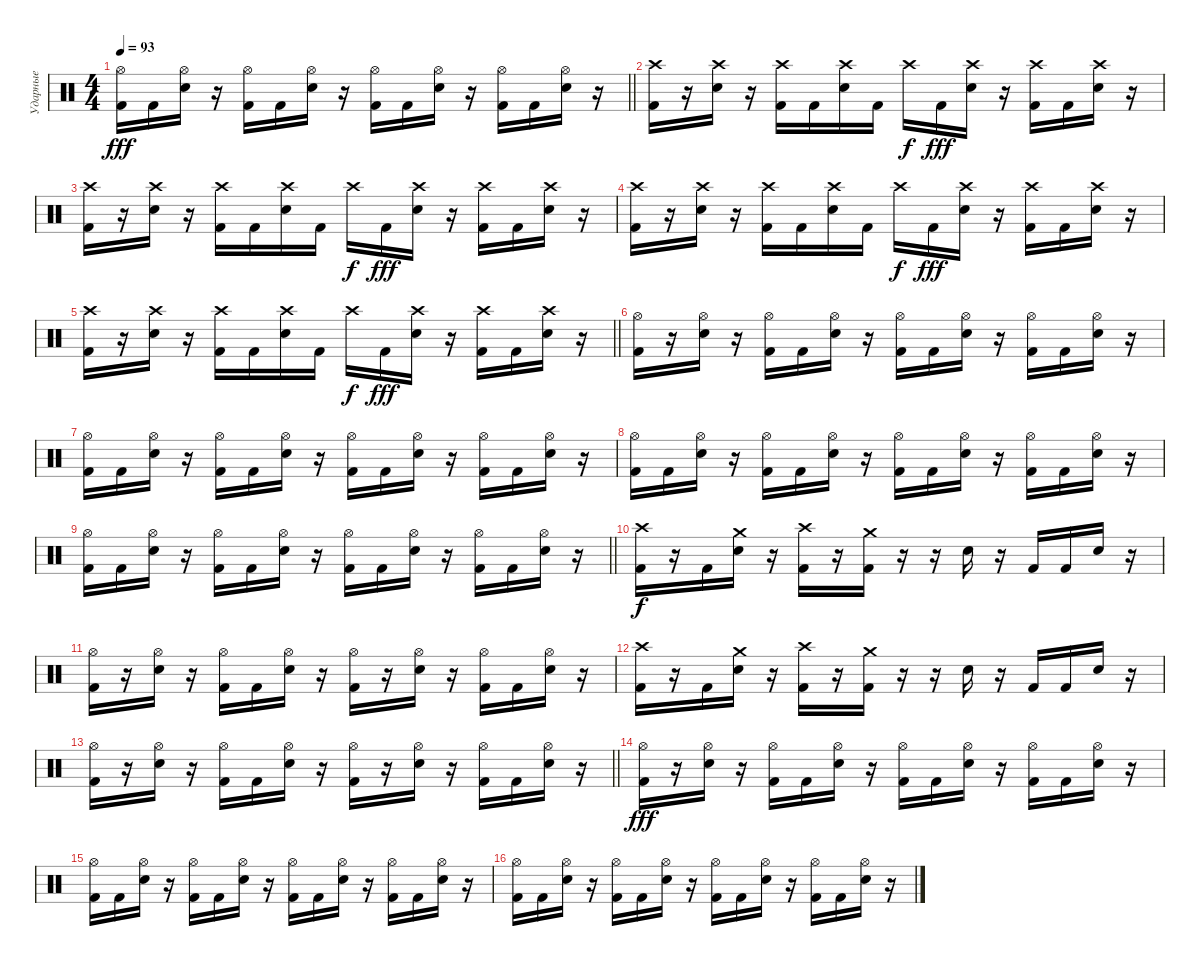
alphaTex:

\track ("Ударные" "Ударные") {instrument percussion}
\staff {score}
\articulation defaults
\ts (4 4)
\tempo 93
\clef neutral
\barLineRight lightlight
\ks c
("Hi-Hat (open)" "Kick (hit) 2").16{dy fff} "Kick (hit) 2".16 ("Hi-Hat (open)" "Electric Snare (hit)").16 r.16 ("Hi-Hat (open)" "Kick (hit) 2").16 "Kick (hit) 2".16 ("Hi-Hat (open)" "Electric Snare (hit)").16 r.16 ("Hi-Hat (open)" "Kick (hit) 2").16 "Kick (hit) 2".16 ("Hi-Hat (open)" "Electric Snare (hit)").16 r.16 ("Hi-Hat (open)" "Kick (hit) 2").16 "Kick (hit) 2".16 ("Hi-Hat (open)" "Electric Snare (hit)").16 r.16 |
\section ("" "")
("Crash high (hit)" "Kick (hit) 2").16 r.16 ("Crash high (hit)" "Electric Snare (hit)").16 r.16 ("Crash high (hit)" "Kick (hit) 2").16 "Kick (hit) 2".16 ("Crash high (hit)" "Electric Snare (hit)").16 "Kick (hit) 2".16 "Crash high (hit)".16{dy f} "Kick (hit) 2".16{dy fff} ("Crash high (hit)" "Electric Snare (hit)").16 r.16 ("Crash high (hit)" "Kick (hit) 2").16 "Kick (hit) 2".16 ("Crash high (hit)" "Electric Snare (hit)").16 r.16 |
("Crash high (hit)" "Kick (hit) 2").16 r.16 ("Crash high (hit)" "Electric Snare (hit)").16 r.16 ("Crash high (hit)" "Kick (hit) 2").16 "Kick (hit) 2".16 ("Crash high (hit)" "Electric Snare (hit)").16 "Kick (hit) 2".16 "Crash high (hit)".16{dy f} "Kick (hit) 2".16{dy fff} ("Crash high (hit)" "Electric Snare (hit)").16 r.16 ("Crash high (hit)" "Kick (hit) 2").16 "Kick (hit) 2".16 ("Crash high (hit)" "Electric Snare (hit)").16 r.16 |
("Crash high (hit)" "Kick (hit) 2").16 r.16 ("Crash high (hit)" "Electric Snare (hit)").16 r.16 ("Crash high (hit)" "Kick (hit) 2").16 "Kick (hit) 2".16 ("Crash high (hit)" "Electric Snare (hit)").16 "Kick (hit) 2".16 "Crash high (hit)".16{dy f} "Kick (hit) 2".16{dy fff} ("Crash high (hit)" "Electric Snare (hit)").16 r.16 ("Crash high (hit)" "Kick (hit) 2").16 "Kick (hit) 2".16 ("Crash high (hit)" "Electric Snare (hit)").16 r.16 |
\barLineRight lightlight
("Crash high (hit)" "Kick (hit) 2").16 r.16 ("Crash high (hit)" "Electric Snare (hit)").16 r.16 ("Crash high (hit)" "Kick (hit) 2").16 "Kick (hit) 2".16 ("Crash high (hit)" "Electric Snare (hit)").16 "Kick (hit) 2".16 "Crash high (hit)".16{dy f} "Kick (hit) 2".16{dy fff} ("Crash high (hit)" "Electric Snare (hit)").16 r.16 ("Crash high (hit)" "Kick (hit) 2").16 "Kick (hit) 2".16 ("Crash high (hit)" "Electric Snare (hit)").16 r.16 |
\section ("" "")
("Hi-Hat (open)" "Kick (hit) 2").16 r.16 ("Hi-Hat (open)" "Electric Snare (hit)").16 r.16 ("Hi-Hat (open)" "Kick (hit) 2").16 "Kick (hit) 2".16 ("Hi-Hat (open)" "Electric Snare (hit)").16 r.16 ("Hi-Hat (open)" "Kick (hit) 2").16 "Kick (hit) 2".16 ("Hi-Hat (open)" "Electric Snare (hit)").16 r.16 ("Hi-Hat (open)" "Kick (hit) 2").16 "Kick (hit) 2".16 ("Hi-Hat (open)" "Electric Snare (hit)").16 r.16 |
("Hi-Hat (open)" "Kick (hit) 2").16 "Kick (hit) 2".16 ("Hi-Hat (open)" "Electric Snare (hit)").16 r.16 ("Hi-Hat (open)" "Kick (hit) 2").16 "Kick (hit) 2".16 ("Hi-Hat (open)" "Electric Snare (hit)").16 r.16 ("Hi-Hat (open)" "Kick (hit) 2").16 "Kick (hit) 2".16 ("Hi-Hat (open)" "Electric Snare (hit)").16 r.16 ("Hi-Hat (open)" "Kick (hit) 2").16 "Kick (hit) 2".16 ("Hi-Hat (open)" "Electric Snare (hit)").16 r.16 |
("Hi-Hat (open)" "Kick (hit) 2").16 "Kick (hit) 2".16 ("Hi-Hat (open)" "Electric Snare (hit)").16 r.16 ("Hi-Hat (open)" "Kick (hit) 2").16 "Kick (hit) 2".16 ("Hi-Hat (open)" "Electric Snare (hit)").16 r.16 ("Hi-Hat (open)" "Kick (hit) 2").16 "Kick (hit) 2".16 ("Hi-Hat (open)" "Electric Snare (hit)").16 r.16 ("Hi-Hat (open)" "Kick (hit) 2").16 "Kick (hit) 2".16 ("Hi-Hat (open)" "Electric Snare (hit)").16 r.16 |
\barLineRight lightlight
("Hi-Hat (open)" "Kick (hit) 2").16 "Kick (hit) 2".16 ("Hi-Hat (open)" "Electric Snare (hit)").16 r.16 ("Hi-Hat (open)" "Kick (hit) 2").16 "Kick (hit) 2".16 ("Hi-Hat (open)" "Electric Snare (hit)").16 r.16 ("Hi-Hat (open)" "Kick (hit) 2").16 "Kick (hit) 2".16 ("Hi-Hat (open)" "Electric Snare (hit)").16 r.16 ("Hi-Hat (open)" "Kick (hit) 2").16 "Kick (hit) 2".16 ("Hi-Hat (open)" "Electric Snare (hit)").16 r.16 |
\section ("" "")
("Crash high (hit)" "Kick (hit) 2").16{dy f} r.16 "Kick (hit) 2".16 ("Crash medium (hit)" "Electric Snare (hit)").16 r.16 ("Crash high (hit)" "Kick (hit) 2").16 r.16 ("Crash medium (hit)" "Kick (hit) 2").16 r.16 r.16 "Electric Snare (hit)".16 r.16 "Kick (hit) 2".16 "Kick (hit) 2".16 "Electric Snare (hit)".16 r.16 |
("Hi-Hat (open)" "Kick (hit) 2").16 r.16 ("Hi-Hat (open)" "Electric Snare (hit)").16 r.16 ("Hi-Hat (open)" "Kick (hit) 2").16 "Kick (hit) 2".16 ("Hi-Hat (open)" "Electric Snare (hit)").16 r.16 ("Hi-Hat (open)" "Kick (hit) 2").16 r.16 ("Hi-Hat (open)" "Electric Snare (hit)").16 r.16 ("Hi-Hat (open)" "Kick (hit) 2").16 "Kick (hit) 2".16 ("Hi-Hat (open)" "Electric Snare (hit)").16 r.16 |
("Crash high (hit)" "Kick (hit) 2").16 r.16 "Kick (hit) 2".16 ("Crash medium (hit)" "Electric Snare (hit)").16 r.16 ("Crash high (hit)" "Kick (hit) 2").16 r.16 ("Crash medium (hit)" "Kick (hit) 2").16 r.16 r.16 "Electric Snare (hit)".16 r.16 "Kick (hit) 2".16 "Kick (hit) 2".16 "Electric Snare (hit)".16 r.16 |
\barLineRight lightlight
("Hi-Hat (open)" "Kick (hit) 2").16 r.16 ("Hi-Hat (open)" "Electric Snare (hit)").16 r.16 ("Hi-Hat (open)" "Kick (hit) 2").16 "Kick (hit) 2".16 ("Hi-Hat (open)" "Electric Snare (hit)").16 r.16 ("Hi-Hat (open)" "Kick (hit) 2").16 r.16 ("Hi-Hat (open)" "Electric Snare (hit)").16 r.16 ("Hi-Hat (open)" "Kick (hit) 2").16 "Kick (hit) 2".16 ("Hi-Hat (open)" "Electric Snare (hit)").16 r.16 |
\section ("" "")
("Hi-Hat (open)" "Kick (hit) 2").16{dy fff} r.16 ("Hi-Hat (open)" "Electric Snare (hit)").16 r.16 ("Hi-Hat (open)" "Kick (hit) 2").16 "Kick (hit) 2".16 ("Hi-Hat (open)" "Electric Snare (hit)").16 r.16 ("Hi-Hat (open)" "Kick (hit) 2").16 "Kick (hit) 2".16 ("Hi-Hat (open)" "Electric Snare (hit)").16 r.16 ("Hi-Hat (open)" "Kick (hit) 2").16 "Kick (hit) 2".16 ("Hi-Hat (open)" "Electric Snare (hit)").16 r.16 |
("Hi-Hat (open)" "Kick (hit) 2").16 "Kick (hit) 2".16 ("Hi-Hat (open)" "Electric Snare (hit)").16 r.16 ("Hi-Hat (open)" "Kick (hit) 2").16 "Kick (hit) 2".16 ("Hi-Hat (open)" "Electric Snare (hit)").16 r.16 ("Hi-Hat (open)" "Kick (hit) 2").16 "Kick (hit) 2".16 ("Hi-Hat (open)" "Electric Snare (hit)").16 r.16 ("Hi-Hat (open)" "Kick (hit) 2").16 "Kick (hit) 2".16 ("Hi-Hat (open)" "Electric Snare (hit)").16 r.16 |
("Hi-Hat (open)" "Kick (hit) 2").16 "Kick (hit) 2".16 ("Hi-Hat (open)" "Electric Snare (hit)").16 r.16 ("Hi-Hat (open)" "Kick (hit) 2").16 "Kick (hit) 2".16 ("Hi-Hat (open)" "Electric Snare (hit)").16 r.16 ("Hi-Hat (open)" "Kick (hit) 2").16 "Kick (hit) 2".16 ("Hi-Hat (open)" "Electric Snare (hit)").16 r.16 ("Hi-Hat (open)" "Kick (hit) 2").16 "Kick (hit) 2".16 ("Hi-Hat (open)" "Electric Snare (hit)").16 r.16
